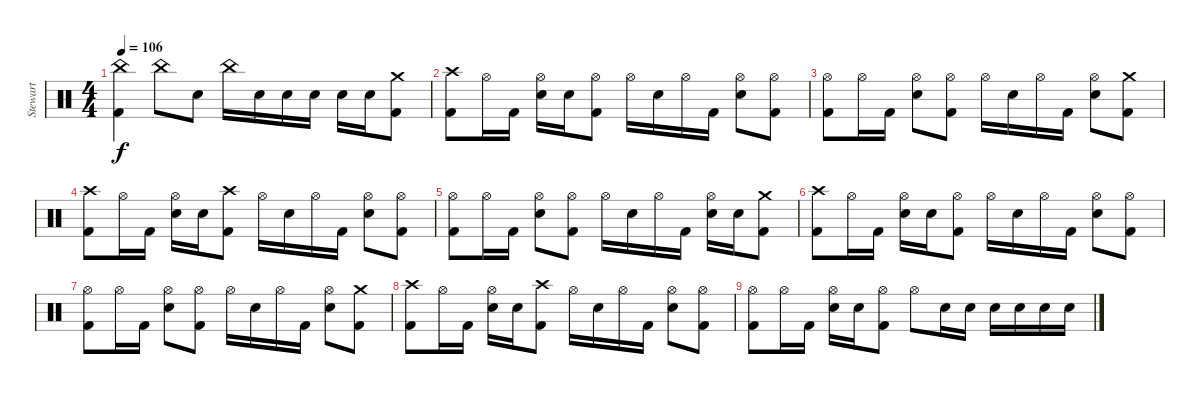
\track ("Stewart" "Stewart") {instrument percussion}
\staff {score}
\articulation defaults
\ts (4 4)
\tempo 106
\clef neutral
\ks c
("China (hit)" "Kick (hit) 2").4{dy f} "China (hit)".8 "Electric Snare (hit)".8 "China (hit)".16 "Electric Snare (hit)".16 "Electric Snare (hit)".16 "Electric Snare (hit)".16 "Electric Snare (hit)".16 "Electric Snare (hit)".16 ("Crash medium (hit)" "Kick (hit) 2").8 |
("Crash high (hit)" "Kick (hit) 2").8 "Hi-Hat (open)".16 "Kick (hit) 2".16 ("Hi-Hat (open)" "Electric Snare (hit)").16 "Electric Snare (hit)".16 ("Hi-Hat (open)" "Kick (hit) 2").8 "Hi-Hat (open)".16 "Electric Snare (hit)".16 "Hi-Hat (open)".16 "Kick (hit) 2".16 ("Hi-Hat (open)" "Electric Snare (hit)").8 ("Hi-Hat (open)" "Kick (hit) 2").8 |
("Hi-Hat (open)" "Kick (hit) 2").8 "Hi-Hat (open)".16 "Kick (hit) 2".16 ("Hi-Hat (open)" "Electric Snare (hit)").8 ("Hi-Hat (open)" "Kick (hit) 2").8 "Hi-Hat (open)".16 "Electric Snare (hit)".16 "Hi-Hat (open)".16 "Kick (hit) 2".16 ("Hi-Hat (open)" "Electric Snare (hit)").8 ("Crash medium (hit)" "Kick (hit) 2").8 |
("Crash high (hit)" "Kick (hit) 2").8 "Hi-Hat (open)".16 "Kick (hit) 2".16 ("Hi-Hat (open)" "Electric Snare (hit)").16 "Electric Snare (hit)".16 ("Crash high (hit)" "Kick (hit) 2").8 "Hi-Hat (open)".16 "Electric Snare (hit)".16 "Hi-Hat (open)".16 "Kick (hit) 2".16 ("Hi-Hat (open)" "Electric Snare (hit)").8 ("Hi-Hat (open)" "Kick (hit) 2").8 |
("Hi-Hat (open)" "Kick (hit) 2").8 "Hi-Hat (open)".16 "Kick (hit) 2".16 ("Hi-Hat (open)" "Electric Snare (hit)").8 ("Hi-Hat (open)" "Kick (hit) 2").8 "Hi-Hat (open)".16 "Electric Snare (hit)".16 "Hi-Hat (open)".16 "Kick (hit) 2".16 ("Hi-Hat (open)" "Electric Snare (hit)").16 "Electric Snare (hit)".16 ("Crash medium (hit)" "Kick (hit) 2").8 |
("Crash high (hit)" "Kick (hit) 2").8 "Hi-Hat (open)".16 "Kick (hit) 2".16 ("Hi-Hat (open)" "Electric Snare (hit)").16 "Electric Snare (hit)".16 ("Hi-Hat (open)" "Kick (hit) 2").8 "Hi-Hat (open)".16 "Electric Snare (hit)".16 "Hi-Hat (open)".16 "Kick (hit) 2".16 ("Hi-Hat (open)" "Electric Snare (hit)").8 ("Hi-Hat (open)" "Kick (hit) 2").8 |
("Hi-Hat (open)" "Kick (hit) 2").8 "Hi-Hat (open)".16 "Kick (hit) 2".16 ("Hi-Hat (open)" "Electric Snare (hit)").8 ("Hi-Hat (open)" "Kick (hit) 2").8 "Hi-Hat (open)".16 "Electric Snare (hit)".16 "Hi-Hat (open)".16 "Kick (hit) 2".16 ("Hi-Hat (open)" "Electric Snare (hit)").8 ("Crash medium (hit)" "Kick (hit) 2").8 |
("Crash high (hit)" "Kick (hit) 2").8 "Hi-Hat (open)".16 "Kick (hit) 2".16 ("Hi-Hat (open)" "Electric Snare (hit)").16 "Electric Snare (hit)".16 ("Crash high (hit)" "Kick (hit) 2").8 "Hi-Hat (open)".16 "Electric Snare (hit)".16 "Hi-Hat (open)".16 "Kick (hit) 2".16 ("Hi-Hat (open)" "Electric Snare (hit)").8 ("Hi-Hat (open)" "Kick (hit) 2").8 |
("Hi-Hat (open)" "Kick (hit) 2").8 "Hi-Hat (open)".16 "Kick (hit) 2".16 ("Hi-Hat (open)" "Electric Snare (hit)").16 "Electric Snare (hit)".16 ("Hi-Hat (open)" "Kick (hit) 2").8 "Hi-Hat (open)".8 "Electric Snare (hit)".16 "Electric Snare (hit)".16 "Electric Snare (hit)".16 "Electric Snare (hit)".16 "Electric Snare (hit)".16 "Electric Snare (hit)".16
